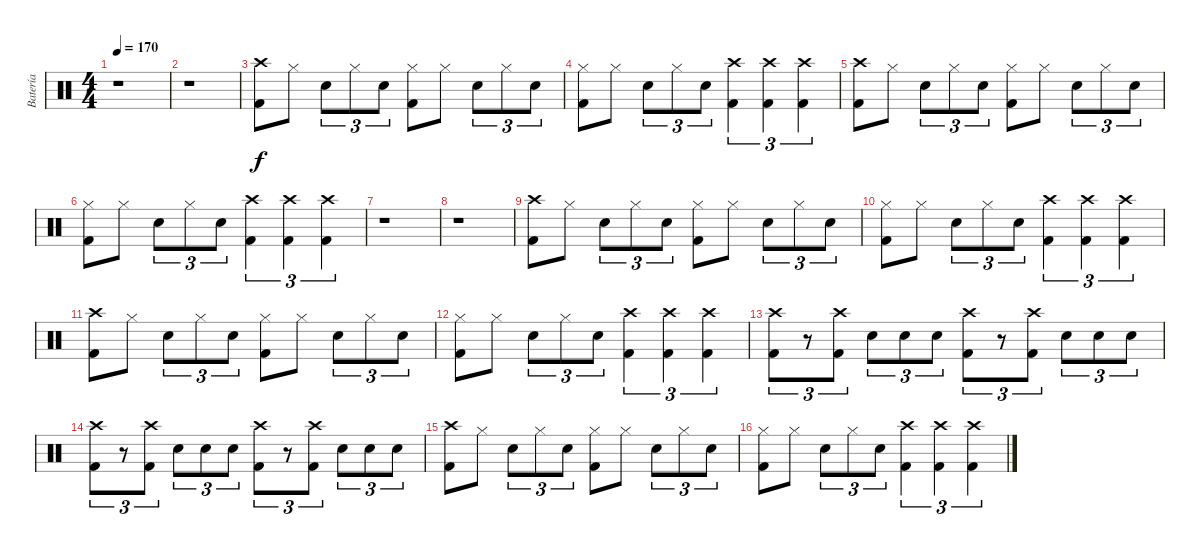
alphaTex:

\track ("Batería" "Batería") {instrument percussion}
\staff {score}
\articulation defaults
\ts (4 4)
\tempo 170
\clef neutral
\ks c
r.1{dy f} |
r.1 |
("Crash high (hit)" "Kick (hit) 2").8 "Hi-Hat (closed)".8 "Snare (hit) 2".8{tu (3 2)} "Hi-Hat (closed)".8{tu (3 2)} "Snare (hit) 2".8{tu (3 2)} ("Hi-Hat (closed)" "Kick (hit) 2").8 "Hi-Hat (closed)".8 "Snare (hit) 2".8{tu (3 2)} "Hi-Hat (closed)".8{tu (3 2)} "Snare (hit) 2".8{tu (3 2)} |
("Hi-Hat (closed)" "Kick (hit) 2").8 "Hi-Hat (closed)".8 "Snare (hit) 2".8{tu (3 2)} "Hi-Hat (closed)".8{tu (3 2)} "Snare (hit) 2".8{tu (3 2)} ("Crash high (hit)" "Kick (hit) 2").4{tu (3 2)} ("Crash high (hit)" "Kick (hit) 2").4{tu (3 2)} ("Crash high (hit)" "Kick (hit) 2").4{tu (3 2)} |
("Crash high (hit)" "Kick (hit) 2").8 "Hi-Hat (closed)".8 "Snare (hit) 2".8{tu (3 2)} "Hi-Hat (closed)".8{tu (3 2)} "Snare (hit) 2".8{tu (3 2)} ("Hi-Hat (closed)" "Kick (hit) 2").8 "Hi-Hat (closed)".8 "Snare (hit) 2".8{tu (3 2)} "Hi-Hat (closed)".8{tu (3 2)} "Snare (hit) 2".8{tu (3 2)} |
("Hi-Hat (closed)" "Kick (hit) 2").8 "Hi-Hat (closed)".8 "Snare (hit) 2".8{tu (3 2)} "Hi-Hat (closed)".8{tu (3 2)} "Snare (hit) 2".8{tu (3 2)} ("Crash high (hit)" "Kick (hit) 2").4{tu (3 2)} ("Crash high (hit)" "Kick (hit) 2").4{tu (3 2)} ("Crash high (hit)" "Kick (hit) 2").4{tu (3 2)} |
r.1 |
r.1 |
("Crash high (hit)" "Kick (hit) 2").8 "Hi-Hat (closed)".8 "Snare (hit) 2".8{tu (3 2)} "Hi-Hat (closed)".8{tu (3 2)} "Snare (hit) 2".8{tu (3 2)} ("Hi-Hat (closed)" "Kick (hit) 2").8 "Hi-Hat (closed)".8 "Snare (hit) 2".8{tu (3 2)} "Hi-Hat (closed)".8{tu (3 2)} "Snare (hit) 2".8{tu (3 2)} |
("Hi-Hat (closed)" "Kick (hit) 2").8 "Hi-Hat (closed)".8 "Snare (hit) 2".8{tu (3 2)} "Hi-Hat (closed)".8{tu (3 2)} "Snare (hit) 2".8{tu (3 2)} ("Crash high (hit)" "Kick (hit) 2").4{tu (3 2)} ("Crash high (hit)" "Kick (hit) 2").4{tu (3 2)} ("Crash high (hit)" "Kick (hit) 2").4{tu (3 2)} |
("Crash high (hit)" "Kick (hit) 2").8 "Hi-Hat (closed)".8 "Snare (hit) 2".8{tu (3 2)} "Hi-Hat (closed)".8{tu (3 2)} "Snare (hit) 2".8{tu (3 2)} ("Hi-Hat (closed)" "Kick (hit) 2").8 "Hi-Hat (closed)".8 "Snare (hit) 2".8{tu (3 2)} "Hi-Hat (closed)".8{tu (3 2)} "Snare (hit) 2".8{tu (3 2)} |
("Hi-Hat (closed)" "Kick (hit) 2").8 "Hi-Hat (closed)".8 "Snare (hit) 2".8{tu (3 2)} "Hi-Hat (closed)".8{tu (3 2)} "Snare (hit) 2".8{tu (3 2)} ("Crash high (hit)" "Kick (hit) 2").4{tu (3 2)} ("Crash high (hit)" "Kick (hit) 2").4{tu (3 2)} ("Crash high (hit)" "Kick (hit) 2").4{tu (3 2)} |
("Crash high (hit)" "Kick (hit) 2").8{tu (3 2)} r.8{tu (3 2)} ("Crash high (hit)" "Kick (hit) 2").8{tu (3 2)} "Snare (hit) 2".8{tu (3 2)} "Snare (hit) 2".8{tu (3 2)} "Snare (hit) 2".8{tu (3 2)} ("Crash high (hit)" "Kick (hit) 2").8{tu (3 2)} r.8{tu (3 2)} ("Crash high (hit)" "Kick (hit) 2").8{tu (3 2)} "Snare (hit) 2".8{tu (3 2)} "Snare (hit) 2".8{tu (3 2)} "Snare (hit) 2".8{tu (3 2)} |
("Crash high (hit)" "Kick (hit) 2").8{tu (3 2)} r.8{tu (3 2)} ("Crash high (hit)" "Kick (hit) 2").8{tu (3 2)} "Snare (hit) 2".8{tu (3 2)} "Snare (hit) 2".8{tu (3 2)} "Snare (hit) 2".8{tu (3 2)} ("Crash high (hit)" "Kick (hit) 2").8{tu (3 2)} r.8{tu (3 2)} ("Crash high (hit)" "Kick (hit) 2").8{tu (3 2)} "Snare (hit) 2".8{tu (3 2)} "Snare (hit) 2".8{tu (3 2)} "Snare (hit) 2".8{tu (3 2)} |
("Crash high (hit)" "Kick (hit) 2").8 "Hi-Hat (closed)".8 "Snare (hit) 2".8{tu (3 2)} "Hi-Hat (closed)".8{tu (3 2)} "Snare (hit) 2".8{tu (3 2)} ("Hi-Hat (closed)" "Kick (hit) 2").8 "Hi-Hat (closed)".8 "Snare (hit) 2".8{tu (3 2)} "Hi-Hat (closed)".8{tu (3 2)} "Snare (hit) 2".8{tu (3 2)} |
("Hi-Hat (closed)" "Kick (hit) 2").8 "Hi-Hat (closed)".8 "Snare (hit) 2".8{tu (3 2)} "Hi-Hat (closed)".8{tu (3 2)} "Snare (hit) 2".8{tu (3 2)} ("Crash high (hit)" "Kick (hit) 2").4{tu (3 2)} ("Crash high (hit)" "Kick (hit) 2").4{tu (3 2)} ("Crash high (hit)" "Kick (hit) 2").4{tu (3 2)}
